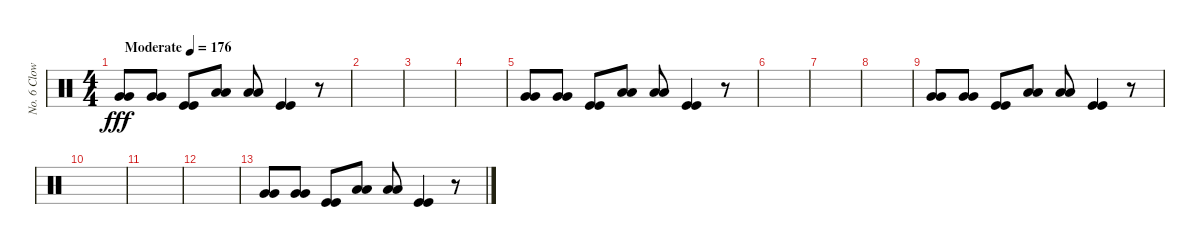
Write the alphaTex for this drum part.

\track ("No. 6 Clown" "No. 6 Clow") {instrument percussion}
\staff {score}
\articulation defaults
\ts (4 4)
\tempo (176 "Moderate")
\clef neutral
\ks c
("Very Low Tom (hit)" "Very Low Tom (hit)").8{dy fff} ("Very Low Tom (hit)" "Very Low Tom (hit)").8 ("Kick (hit)" "Kick (hit)").8 ("Low Floor Tom (hit)" "Low Floor Tom (hit)").8 ("Low Floor Tom (hit)" "Low Floor Tom (hit)").8 ("Kick (hit)" "Kick (hit)").4 r.8 |
|
|
|
("Very Low Tom (hit)" "Very Low Tom (hit)").8 ("Very Low Tom (hit)" "Very Low Tom (hit)").8 ("Kick (hit)" "Kick (hit)").8 ("Low Floor Tom (hit)" "Low Floor Tom (hit)").8 ("Low Floor Tom (hit)" "Low Floor Tom (hit)").8 ("Kick (hit)" "Kick (hit)").4 r.8 |
|
|
|
("Very Low Tom (hit)" "Very Low Tom (hit)").8 ("Very Low Tom (hit)" "Very Low Tom (hit)").8 ("Kick (hit)" "Kick (hit)").8 ("Low Floor Tom (hit)" "Low Floor Tom (hit)").8 ("Low Floor Tom (hit)" "Low Floor Tom (hit)").8 ("Kick (hit)" "Kick (hit)").4 r.8 |
|
|
|
("Very Low Tom (hit)" "Very Low Tom (hit)").8 ("Very Low Tom (hit)" "Very Low Tom (hit)").8 ("Kick (hit)" "Kick (hit)").8 ("Low Floor Tom (hit)" "Low Floor Tom (hit)").8 ("Low Floor Tom (hit)" "Low Floor Tom (hit)").8 ("Kick (hit)" "Kick (hit)").4 r.8
